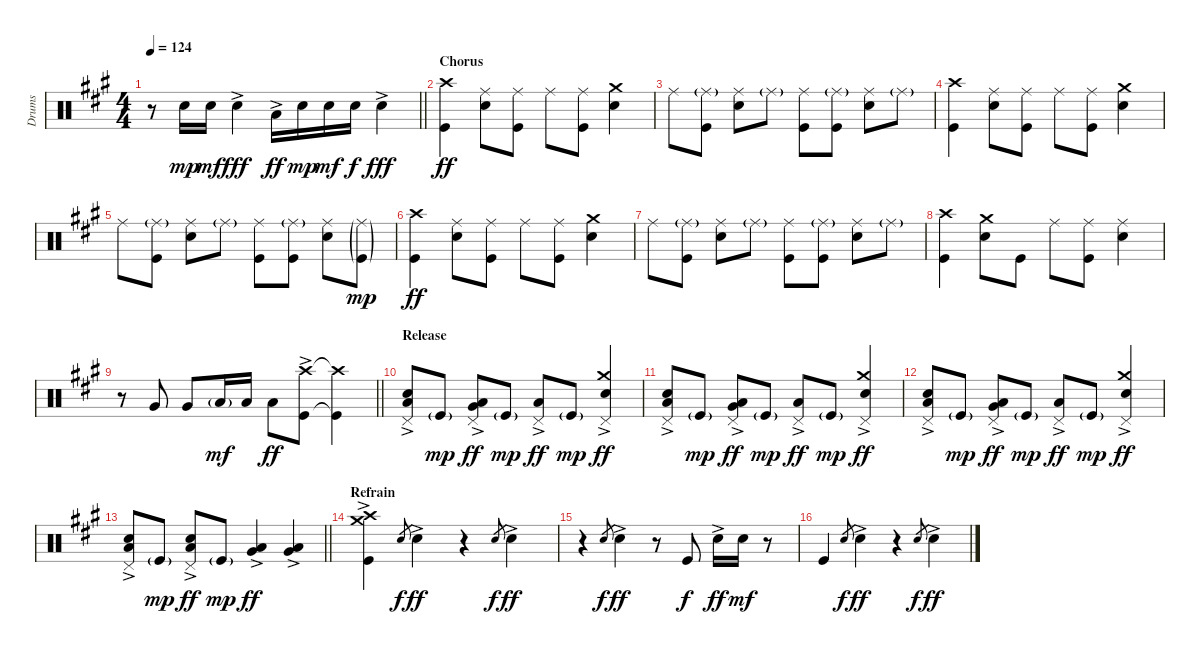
\track ("Drums" "Drums") {instrument percussion}
\staff {score}
\articulation defaults
\ts (4 4)
\tempo 124
\clef neutral
\barLineRight lightlight
\ks a
r.8{dy f} "Snare (hit) 2".16{dy mp} "Snare (hit) 2".16{dy mf} "Snare (hit) 2"{ac}.4{dy fff} "Low Tom (hit)"{ac}.16{dy ff} "Snare (hit) 2".16{dy mp} "Snare (hit) 2".16{dy mf} "Snare (hit) 2".16{dy f} "Snare (hit) 2"{ac}.4{dy fff} |
\section ("" "Chorus")
("Crash high (hit)" "Kick (hit)").4{dy ff} ("Ride (middle)" "Snare (hit) 2").8 ("Ride (middle)" "Kick (hit)").8 "Ride (middle)".8 ("Ride (middle)" "Kick (hit)").8 ("Crash medium (hit)" "Snare (hit) 2").4 |
"Ride (middle)".8 ("Ride (middle)"{g} "Kick (hit)").8 ("Ride (middle)" "Snare (hit) 2").8 "Ride (middle)"{g}.8 ("Ride (middle)" "Kick (hit)").8 ("Ride (middle)"{g} "Kick (hit)").8 ("Ride (middle)" "Snare (hit) 2").8 "Ride (middle)"{g}.8 |
("Crash high (hit)" "Kick (hit)").4 ("Ride (middle)" "Snare (hit) 2").8 ("Ride (middle)" "Kick (hit)").8 "Ride (middle)".8 ("Ride (middle)" "Kick (hit)").8 ("Crash medium (hit)" "Snare (hit) 2").4 |
"Ride (middle)".8 ("Ride (middle)"{g} "Kick (hit)").8 ("Ride (middle)" "Snare (hit) 2").8 "Ride (middle)"{g}.8 ("Ride (middle)" "Kick (hit)").8 ("Ride (middle)"{g} "Kick (hit)").8 ("Ride (middle)" "Snare (hit) 2").8 ("Ride (middle)"{g} "Kick (hit)"{g}).8{dy mp} |
("Crash high (hit)" "Kick (hit)").4{dy ff} ("Ride (middle)" "Snare (hit) 2").8 ("Ride (middle)" "Kick (hit)").8 "Ride (middle)".8 ("Ride (middle)" "Kick (hit)").8 ("Crash medium (hit)" "Snare (hit) 2").4 |
"Ride (middle)".8 ("Ride (middle)"{g} "Kick (hit)").8 ("Ride (middle)" "Snare (hit) 2").8 "Ride (middle)"{g}.8 ("Ride (middle)" "Kick (hit)").8 ("Ride (middle)"{g} "Kick (hit)").8 ("Ride (middle)" "Snare (hit) 2").8 "Ride (middle)"{g}.8 |
("Crash high (hit)" "Kick (hit)").4 ("Crash medium (hit)" "Snare (hit) 2").8 "Kick (hit)".8 "Ride (middle)".8 ("Ride (middle)" "Kick (hit)").8 ("Ride (middle)" "Snare (hit) 2").4 |
\barLineRight lightlight
r.8 "Very Low Tom (hit)".8 "Very Low Tom (hit)".8 "Low Floor Tom (hit)"{g}.16{dy mf} "Low Floor Tom (hit)".16 "Low Floor Tom (hit)".8{dy ff} ("Kick (hit)"{ac} "Crash high (hit)"{ac}).8 ("Kick (hit)"{t} "Crash high (hit)"{t}).4 |
\section ("" "Release")
("Low Tom (hit)" "Snare (hit) 2"{ac} "Pedal Hi-Hat (hit)").8 "Kick (hit)"{g}.8{dy mp} ("Low Floor Tom (hit)" "Very Low Tom (hit)"{ac} "Pedal Hi-Hat (hit)").8{dy ff} "Kick (hit)"{g}.8{dy mp} ("Low Floor Tom (hit)"{ac} "Pedal Hi-Hat (hit)").8{dy ff} "Kick (hit)"{g}.8{dy mp} ("Crash medium (hit)"{ac} "Snare (hit) 2"{ac} "Pedal Hi-Hat (hit)").4{dy ff} |
("Low Tom (hit)" "Snare (hit) 2"{ac} "Pedal Hi-Hat (hit)").8 "Kick (hit)"{g}.8{dy mp} ("Low Floor Tom (hit)" "Very Low Tom (hit)"{ac} "Pedal Hi-Hat (hit)").8{dy ff} "Kick (hit)"{g}.8{dy mp} ("Low Floor Tom (hit)"{ac} "Pedal Hi-Hat (hit)").8{dy ff} "Kick (hit)"{g}.8{dy mp} ("Crash medium (hit)"{ac} "Snare (hit) 2"{ac} "Pedal Hi-Hat (hit)").4{dy ff} |
("Low Tom (hit)" "Snare (hit) 2"{ac} "Pedal Hi-Hat (hit)").8 "Kick (hit)"{g}.8{dy mp} ("Low Floor Tom (hit)" "Very Low Tom (hit)"{ac} "Pedal Hi-Hat (hit)").8{dy ff} "Kick (hit)"{g}.8{dy mp} ("Low Floor Tom (hit)"{ac} "Pedal Hi-Hat (hit)").8{dy ff} "Kick (hit)"{g}.8{dy mp} ("Crash medium (hit)"{ac} "Snare (hit) 2"{ac} "Pedal Hi-Hat (hit)").4{dy ff} |
\barLineRight lightlight
("Low Tom (hit)" "Snare (hit) 2"{ac} "Pedal Hi-Hat (hit)").8 "Kick (hit)"{g}.8{dy mp} ("Low Tom (hit)" "Snare (hit) 2"{ac} "Pedal Hi-Hat (hit)").8{dy ff} "Kick (hit)"{g}.8{dy mp} ("Very Low Tom (hit)"{ac} "Low Tom (hit)"{ac}).4{dy ff} ("Low Floor Tom (hit)"{ac} "Very Low Tom (hit)"{ac}).4 |
\section ("" "Refrain")
("Crash high (hit)"{ac} "Kick (hit)"{ac} "Crash medium (hit)"{ac}).4 "Snare (hit) 2".8{gr dy f} "Snare (hit) 2"{ac}.4{dy ff} r.4 "Snare (hit) 2".8{gr dy f} "Snare (hit) 2"{ac}.4{dy ff} |
r.4 "Snare (hit) 2".8{gr dy f} "Snare (hit) 2"{ac}.4{dy ff} r.8 "Kick (hit)".8{dy f} "Snare (hit) 2"{ac}.16{dy ff} "Snare (hit) 2".16{dy mf} r.8 |
"Kick (hit)".4 "Snare (hit) 2".8{gr dy f} "Snare (hit) 2"{ac}.4{dy ff} r.4 "Snare (hit) 2".8{gr dy f} "Snare (hit) 2"{ac}.4{dy ff}
